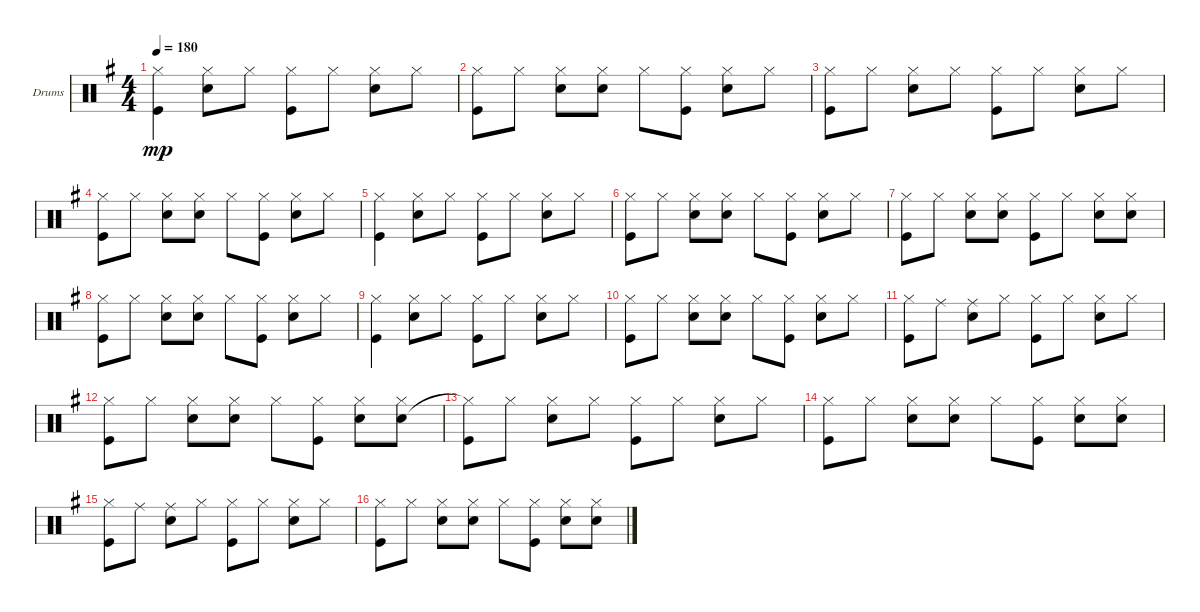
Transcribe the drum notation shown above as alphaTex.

\defaultSystemsLayout 4
\bracketExtendMode groupsimilarinstruments
\firstSystemTrackNameOrientation horizontal
\otherSystemsTrackNameOrientation horizontal
\track ("Drumkit" "Drums") {instrument percussion}
\staff {score}
\articulation defaults
\ts (4 4)
\tempo 180
\clef neutral
\ks g
("Hi-Hat (closed)" "Kick (hit)").4{dy mp} ("Snare (hit) 2" "Hi-Hat (closed)").8 "Hi-Hat (closed)".8 ("Hi-Hat (closed)" "Kick (hit)").8 "Hi-Hat (closed)".8 ("Hi-Hat (closed)" "Snare (hit) 2").8 "Hi-Hat (closed)".8 |
("Hi-Hat (closed)" "Kick (hit)").8 "Hi-Hat (closed)".8 ("Hi-Hat (closed)" "Snare (hit) 2").8 ("Snare (hit) 2" "Hi-Hat (closed)").8 "Hi-Hat (closed)".8 ("Hi-Hat (closed)" "Kick (hit)").8 ("Hi-Hat (closed)" "Snare (hit) 2").8 "Hi-Hat (closed)".8 |
("Hi-Hat (closed)" "Kick (hit)").8 "Hi-Hat (closed)".8 ("Hi-Hat (closed)" "Snare (hit) 2").8 "Hi-Hat (closed)".8 ("Hi-Hat (closed)" "Kick (hit)").8 "Hi-Hat (closed)".8 ("Hi-Hat (closed)" "Snare (hit) 2").8 "Hi-Hat (closed)".8 |
("Hi-Hat (closed)" "Kick (hit)").8 "Hi-Hat (closed)".8 ("Hi-Hat (closed)" "Snare (hit) 2").8 ("Snare (hit) 2" "Hi-Hat (closed)").8 "Hi-Hat (closed)".8 ("Hi-Hat (closed)" "Kick (hit)").8 ("Hi-Hat (closed)" "Snare (hit) 2").8 "Hi-Hat (closed)".8 |
("Hi-Hat (closed)" "Kick (hit)").4 ("Hi-Hat (closed)" "Snare (hit) 2").8 "Hi-Hat (closed)".8 ("Hi-Hat (closed)" "Kick (hit)").8 "Hi-Hat (closed)".8 ("Hi-Hat (closed)" "Snare (hit) 2").8 "Hi-Hat (closed)".8 |
("Hi-Hat (closed)" "Kick (hit)").8 "Hi-Hat (closed)".8 ("Hi-Hat (closed)" "Snare (hit) 2").8 ("Snare (hit) 2" "Hi-Hat (closed)").8 "Hi-Hat (closed)".8 ("Hi-Hat (closed)" "Kick (hit)").8 ("Hi-Hat (closed)" "Snare (hit) 2").8 "Hi-Hat (closed)".8 |
("Hi-Hat (closed)" "Kick (hit)").8 "Hi-Hat (closed)".8 ("Hi-Hat (closed)" "Snare (hit) 2").8 ("Snare (hit) 2" "Hi-Hat (closed)").8 ("Hi-Hat (closed)" "Kick (hit)").8 "Hi-Hat (closed)".8 ("Hi-Hat (closed)" "Snare (hit) 2").8 ("Hi-Hat (closed)" "Snare (hit) 2").8 |
("Hi-Hat (closed)" "Kick (hit)").8 "Hi-Hat (closed)".8 ("Hi-Hat (closed)" "Snare (hit) 2").8 ("Snare (hit) 2" "Hi-Hat (closed)").8 "Hi-Hat (closed)".8 ("Hi-Hat (closed)" "Kick (hit)").8 ("Hi-Hat (closed)" "Snare (hit) 2").8 "Hi-Hat (closed)".8 |
("Hi-Hat (closed)" "Kick (hit)").4 ("Hi-Hat (closed)" "Snare (hit) 2").8 "Hi-Hat (closed)".8 ("Hi-Hat (closed)" "Kick (hit)").8 "Hi-Hat (closed)".8 ("Hi-Hat (closed)" "Snare (hit) 2").8 "Hi-Hat (closed)".8 |
("Hi-Hat (closed)" "Kick (hit)").8 "Hi-Hat (closed)".8 ("Hi-Hat (closed)" "Snare (hit) 2").8 ("Snare (hit) 2" "Hi-Hat (closed)").8 "Hi-Hat (closed)".8 ("Hi-Hat (closed)" "Kick (hit)").8 ("Snare (hit) 2" "Hi-Hat (closed)").8 "Hi-Hat (closed)".8 |
("Hi-Hat (closed)" "Kick (hit)").8 "Ride (middle)".8 ("Ride (middle)" "Snare (hit) 2").8 "Hi-Hat (closed)".8 ("Hi-Hat (closed)" "Kick (hit)").8 "Hi-Hat (closed)".8 ("Hi-Hat (closed)" "Snare (hit) 2").8 "Hi-Hat (closed)".8 |
("Hi-Hat (closed)" "Kick (hit)").8 "Hi-Hat (closed)".8 ("Hi-Hat (closed)" "Snare (hit) 2").8 ("Hi-Hat (closed)" "Snare (hit) 2").8 "Hi-Hat (closed)".8 ("Hi-Hat (closed)" "Kick (hit)").8 ("Hi-Hat (closed)" "Snare (hit) 2").8 ("Snare (hit) 2" "Hi-Hat (closed)").8 |
("Hi-Hat (closed)"{t} "Kick (hit)").8 "Hi-Hat (closed)".8 ("Hi-Hat (closed)" "Snare (hit) 2").8 "Hi-Hat (closed)".8 ("Hi-Hat (closed)" "Kick (hit)").8 "Hi-Hat (closed)".8 ("Hi-Hat (closed)" "Snare (hit) 2").8 "Hi-Hat (closed)".8 |
("Hi-Hat (closed)" "Kick (hit)").8 "Hi-Hat (closed)".8 ("Hi-Hat (closed)" "Snare (hit) 2").8 ("Snare (hit) 2" "Hi-Hat (closed)").8 "Hi-Hat (closed)".8 ("Hi-Hat (closed)" "Kick (hit)").8 ("Snare (hit) 2" "Hi-Hat (closed)").8 ("Snare (hit) 2" "Hi-Hat (closed)").8 |
("Hi-Hat (closed)" "Kick (hit)").8 "Ride (middle)".8 ("Ride (middle)" "Snare (hit) 2").8 "Hi-Hat (closed)".8 ("Hi-Hat (closed)" "Kick (hit)").8 "Hi-Hat (closed)".8 ("Hi-Hat (closed)" "Snare (hit) 2").8 "Hi-Hat (closed)".8 |
("Hi-Hat (closed)" "Kick (hit)").8 "Hi-Hat (closed)".8 ("Hi-Hat (closed)" "Snare (hit) 2").8 ("Hi-Hat (closed)" "Snare (hit) 2").8 "Hi-Hat (closed)".8 ("Hi-Hat (closed)" "Kick (hit)").8 ("Hi-Hat (closed)" "Snare (hit) 2").8 ("Snare (hit) 2" "Hi-Hat (closed)").8
